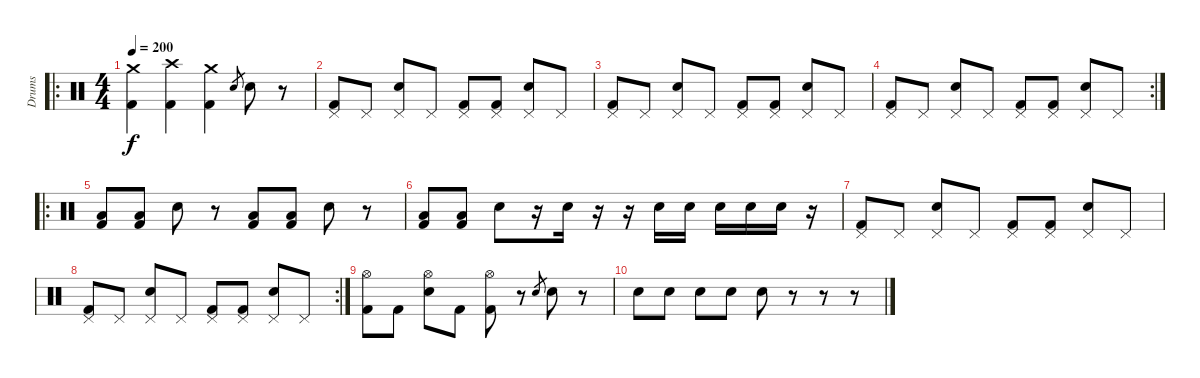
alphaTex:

\track ("Drums" "Drums") {instrument percussion}
\staff {score}
\articulation defaults
\ro
\ts (4 4)
\tempo 200
\clef neutral
\ks c
("Crash medium (hit)" "Kick (hit) 2").4{dy f} ("Crash high (hit)" "Kick (hit) 2").4 ("Crash medium (hit)" "Kick (hit) 2").4 "Snare (hit) 2".8{gr} "Snare (hit) 2".8 r.8 |
("Pedal Hi-Hat (hit)" "Kick (hit) 2").8 "Pedal Hi-Hat (hit)".8 ("Pedal Hi-Hat (hit)" "Snare (hit) 2").8 "Pedal Hi-Hat (hit)".8 ("Pedal Hi-Hat (hit)" "Kick (hit) 2").8 ("Pedal Hi-Hat (hit)" "Kick (hit) 2").8 ("Pedal Hi-Hat (hit)" "Snare (hit) 2").8 "Pedal Hi-Hat (hit)".8 |
("Pedal Hi-Hat (hit)" "Kick (hit) 2").8 "Pedal Hi-Hat (hit)".8 ("Pedal Hi-Hat (hit)" "Snare (hit) 2").8 "Pedal Hi-Hat (hit)".8 ("Pedal Hi-Hat (hit)" "Kick (hit) 2").8 ("Pedal Hi-Hat (hit)" "Kick (hit) 2").8 ("Pedal Hi-Hat (hit)" "Snare (hit) 2").8 "Pedal Hi-Hat (hit)".8 |
\rc 2
("Pedal Hi-Hat (hit)" "Kick (hit) 2").8 "Pedal Hi-Hat (hit)".8 ("Pedal Hi-Hat (hit)" "Snare (hit) 2").8 "Pedal Hi-Hat (hit)".8 ("Pedal Hi-Hat (hit)" "Kick (hit) 2").8 ("Pedal Hi-Hat (hit)" "Kick (hit) 2").8 ("Pedal Hi-Hat (hit)" "Snare (hit) 2").8 "Pedal Hi-Hat (hit)".8 |
\ro
("Low Floor Tom (hit)" "Kick (hit) 2").8 ("Low Floor Tom (hit)" "Kick (hit) 2").8 "Snare (hit) 2".8 r.8 ("Low Floor Tom (hit)" "Kick (hit) 2").8 ("Low Floor Tom (hit)" "Kick (hit) 2").8 "Snare (hit) 2".8 r.8 |
("Low Floor Tom (hit)" "Kick (hit) 2").8 ("Low Floor Tom (hit)" "Kick (hit) 2").8 "Snare (hit) 2".8 r.16 "Snare (hit) 2".16 r.16 r.16 "Snare (hit) 2".16 "Snare (hit) 2".16 "Snare (hit) 2".16 "Snare (hit) 2".16 "Snare (hit) 2".16 r.16 |
("Pedal Hi-Hat (hit)" "Kick (hit) 2").8 "Pedal Hi-Hat (hit)".8 ("Pedal Hi-Hat (hit)" "Snare (hit) 2").8 "Pedal Hi-Hat (hit)".8 ("Pedal Hi-Hat (hit)" "Kick (hit) 2").8 ("Pedal Hi-Hat (hit)" "Kick (hit) 2").8 ("Pedal Hi-Hat (hit)" "Snare (hit) 2").8 "Pedal Hi-Hat (hit)".8 |
\rc 2
("Pedal Hi-Hat (hit)" "Kick (hit) 2").8 "Pedal Hi-Hat (hit)".8 ("Pedal Hi-Hat (hit)" "Snare (hit) 2").8 "Pedal Hi-Hat (hit)".8 ("Pedal Hi-Hat (hit)" "Kick (hit) 2").8 ("Pedal Hi-Hat (hit)" "Kick (hit) 2").8 ("Pedal Hi-Hat (hit)" "Snare (hit) 2").8 "Pedal Hi-Hat (hit)".8 |
("Hi-Hat (open)" "Kick (hit) 2").8 "Kick (hit) 2".8 ("Hi-Hat (open)" "Snare (hit) 2").8 "Kick (hit) 2".8 ("Hi-Hat (open)" "Kick (hit) 2").8 r.8 "Snare (hit) 2".8{gr} "Snare (hit) 2".8 r.8 |
"Snare (hit) 2".8 "Snare (hit) 2".8 "Snare (hit) 2".8 "Snare (hit) 2".8 "Snare (hit) 2".8 r.8 r.8 r.8
